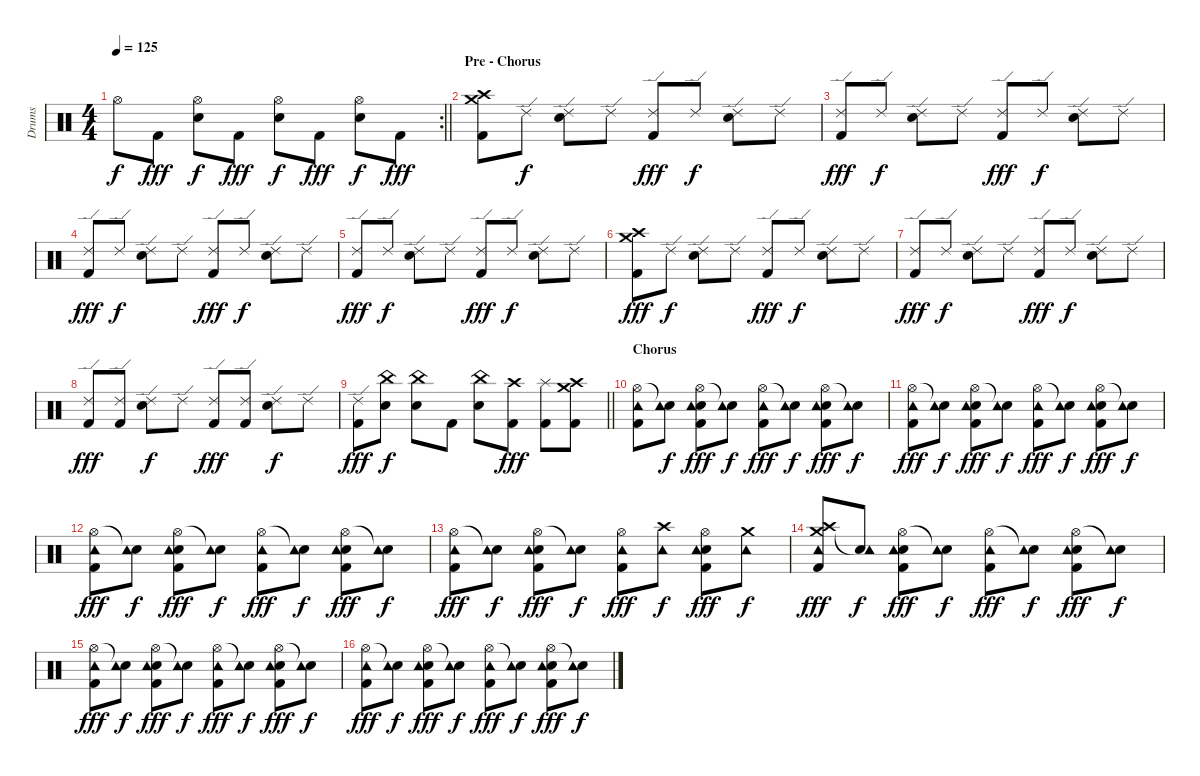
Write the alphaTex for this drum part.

\track ("Drums" "Drums") {instrument percussion}
\staff {score}
\articulation defaults
\rc 2
\ts (4 4)
\tempo 125
\clef neutral
\barLineRight lightlight
\ks c "Hi-Hat (open)".8{dy f} "Kick (hit) 2".8{dy fff}
("Hi-Hat (open)" "Electric Snare (hit)").8{dy f} "Kick (hit) 2".8{dy fff} ("Hi-Hat (open)" "Electric Snare (hit)").8{dy f} "Kick (hit) 2".8{dy fff} ("Hi-Hat (open)" "Electric Snare (hit)").8{dy f} "Kick (hit) 2".8{dy fff} |
\section ("" "Pre - Chorus")
("Crash high (hit)" "Kick (hit) 2" "Crash medium (hit)").8 "Ride (edge) 2".8{dy f} ("Ride (edge) 2" "Electric Snare (hit)").8 "Ride (edge) 2".8 ("Ride (edge) 2" "Kick (hit) 2").8{dy fff} "Ride (edge) 2".8{dy f} ("Ride (edge) 2" "Electric Snare (hit)").8 "Ride (edge) 2".8 |
("Ride (edge) 2" "Kick (hit) 2").8{dy fff} "Ride (edge) 2".8{dy f} ("Ride (edge) 2" "Electric Snare (hit)").8 "Ride (edge) 2".8 ("Ride (edge) 2" "Kick (hit) 2").8{dy fff} "Ride (edge) 2".8{dy f} ("Ride (edge) 2" "Electric Snare (hit)").8 "Ride (edge) 2".8 |
("Ride (edge) 2" "Kick (hit) 2").8{dy fff} "Ride (edge) 2".8{dy f} ("Ride (edge) 2" "Electric Snare (hit)").8 "Ride (edge) 2".8 ("Ride (edge) 2" "Kick (hit) 2").8{dy fff} "Ride (edge) 2".8{dy f} ("Ride (edge) 2" "Electric Snare (hit)").8 "Ride (edge) 2".8 |
("Ride (edge) 2" "Kick (hit) 2").8{dy fff} "Ride (edge) 2".8{dy f} ("Ride (edge) 2" "Electric Snare (hit)").8 "Ride (edge) 2".8 ("Ride (edge) 2" "Kick (hit) 2").8{dy fff} "Ride (edge) 2".8{dy f} ("Ride (edge) 2" "Electric Snare (hit)").8 "Ride (edge) 2".8 |
("Crash high (hit)" "Kick (hit) 2" "Crash medium (hit)").8{dy fff} "Ride (edge) 2".8{dy f} ("Ride (edge) 2" "Electric Snare (hit)").8 "Ride (edge) 2".8 ("Ride (edge) 2" "Kick (hit) 2").8{dy fff} "Ride (edge) 2".8{dy f} ("Ride (edge) 2" "Electric Snare (hit)").8 "Ride (edge) 2".8 |
("Ride (edge) 2" "Kick (hit) 2").8{dy fff} "Ride (edge) 2".8{dy f} ("Ride (edge) 2" "Electric Snare (hit)").8 "Ride (edge) 2".8 ("Ride (edge) 2" "Kick (hit) 2").8{dy fff} "Ride (edge) 2".8{dy f} ("Ride (edge) 2" "Electric Snare (hit)").8 "Ride (edge) 2".8 |
("Ride (edge) 2" "Kick (hit) 2").8{dy fff} ("Ride (edge) 2" "Kick (hit) 2").8 ("Ride (edge) 2" "Electric Snare (hit)").8{dy f} "Ride (edge) 2".8 ("Ride (edge) 2" "Kick (hit) 2").8{dy fff} ("Ride (edge) 2" "Kick (hit) 2").8 ("Ride (edge) 2" "Electric Snare (hit)").8{dy f} "Ride (edge) 2".8 |
\barLineRight lightlight
("Ride (edge) 2" "Kick (hit) 2").8{dy fff} ("Electric Snare (hit)" "China (hit)").8{dy f} ("Electric Snare (hit)" "China (hit)").8 "Kick (hit) 2".8 ("Electric Snare (hit)" "China (hit)").8 ("Crash high (hit)" "Kick (hit) 2").8{dy fff} ("Splash (hit)" "Kick (hit) 2").8 ("Crash medium (hit)" "Kick (hit) 2" "Crash high (hit)").8 |
\section ("" "Chorus")
("Hi-Hat (open)" "Kick (hit) 2" "Tambourine (hit)").8 ("Snare (hit)"{t} "Tambourine (hit)").8{dy f} ("Hi-Hat (open)" "Kick (hit) 2" "Electric Snare (hit)" "Tambourine (hit)").8{dy fff} ("Snare (hit)"{t} "Tambourine (hit)").8{dy f} ("Hi-Hat (open)" "Kick (hit) 2" "Tambourine (hit)").8{dy fff} ("Snare (hit)"{t} "Tambourine (hit)").8{dy f} ("Hi-Hat (open)" "Kick (hit) 2" "Electric Snare (hit)" "Tambourine (hit)").8{dy fff} ("Snare (hit)"{t} "Tambourine (hit)").8{dy f} |
("Hi-Hat (open)" "Kick (hit) 2" "Tambourine (hit)").8{dy fff} ("Snare (hit)"{t} "Tambourine (hit)").8{dy f} ("Hi-Hat (open)" "Kick (hit) 2" "Electric Snare (hit)" "Tambourine (hit)").8{dy fff} ("Snare (hit)"{t} "Tambourine (hit)").8{dy f} ("Hi-Hat (open)" "Kick (hit) 2" "Tambourine (hit)").8{dy fff} ("Snare (hit)"{t} "Tambourine (hit)").8{dy f} ("Hi-Hat (open)" "Kick (hit) 2" "Electric Snare (hit)" "Tambourine (hit)").8{dy fff} ("Snare (hit)"{t} "Tambourine (hit)").8{dy f} |
("Hi-Hat (open)" "Kick (hit) 2" "Tambourine (hit)").8{dy fff} ("Snare (hit)"{t} "Tambourine (hit)").8{dy f} ("Hi-Hat (open)" "Kick (hit) 2" "Electric Snare (hit)" "Tambourine (hit)").8{dy fff} ("Snare (hit)"{t} "Tambourine (hit)").8{dy f} ("Hi-Hat (open)" "Kick (hit) 2" "Tambourine (hit)").8{dy fff} ("Snare (hit)"{t} "Tambourine (hit)").8{dy f} ("Hi-Hat (open)" "Kick (hit) 2" "Electric Snare (hit)" "Tambourine (hit)").8{dy fff} ("Snare (hit)"{t} "Tambourine (hit)").8{dy f} |
("Hi-Hat (open)" "Kick (hit) 2" "Tambourine (hit)").8{dy fff} ("Snare (hit)"{t} "Tambourine (hit)").8{dy f} ("Hi-Hat (open)" "Kick (hit) 2" "Electric Snare (hit)" "Tambourine (hit)").8{dy fff} ("Snare (hit)"{t} "Tambourine (hit)").8{dy f} ("Hi-Hat (open)" "Kick (hit) 2" "Tambourine (hit)").8{dy fff} ("Crash high (hit)" "Tambourine (hit)").8{dy f} ("Hi-Hat (open)" "Kick (hit) 2" "Electric Snare (hit)" "Tambourine (hit)").8{dy fff} ("Crash medium (hit)" "Tambourine (hit)").8{dy f} |
("Crash high (hit)" "Kick (hit) 2" "Crash medium (hit)" "Tambourine (hit)").8{dy fff} ("Snare (hit)"{t} "Tambourine (hit)").8{dy f} ("Hi-Hat (open)" "Kick (hit) 2" "Electric Snare (hit)" "Tambourine (hit)").8{dy fff} ("Snare (hit)"{t} "Tambourine (hit)").8{dy f} ("Hi-Hat (open)" "Kick (hit) 2" "Tambourine (hit)").8{dy fff} ("Snare (hit)"{t} "Tambourine (hit)").8{dy f} ("Hi-Hat (open)" "Kick (hit) 2" "Electric Snare (hit)" "Tambourine (hit)").8{dy fff} ("Snare (hit)"{t} "Tambourine (hit)").8{dy f} |
("Hi-Hat (open)" "Kick (hit) 2" "Tambourine (hit)").8{dy fff} ("Snare (hit)"{t} "Tambourine (hit)").8{dy f} ("Hi-Hat (open)" "Kick (hit) 2" "Electric Snare (hit)" "Tambourine (hit)").8{dy fff} ("Snare (hit)"{t} "Tambourine (hit)").8{dy f} ("Hi-Hat (open)" "Kick (hit) 2" "Tambourine (hit)").8{dy fff} ("Snare (hit)"{t} "Tambourine (hit)").8{dy f} ("Hi-Hat (open)" "Kick (hit) 2" "Electric Snare (hit)" "Tambourine (hit)").8{dy fff} ("Snare (hit)"{t} "Tambourine (hit)").8{dy f} |
("Hi-Hat (open)" "Kick (hit) 2" "Tambourine (hit)").8{dy fff} ("Snare (hit)"{t} "Tambourine (hit)").8{dy f} ("Hi-Hat (open)" "Kick (hit) 2" "Electric Snare (hit)" "Tambourine (hit)").8{dy fff} ("Snare (hit)"{t} "Tambourine (hit)").8{dy f} ("Hi-Hat (open)" "Kick (hit) 2" "Tambourine (hit)").8{dy fff} ("Snare (hit)"{t} "Tambourine (hit)").8{dy f} ("Hi-Hat (open)" "Kick (hit) 2" "Electric Snare (hit)" "Tambourine (hit)").8{dy fff} ("Snare (hit)"{t} "Tambourine (hit)").8{dy f}
